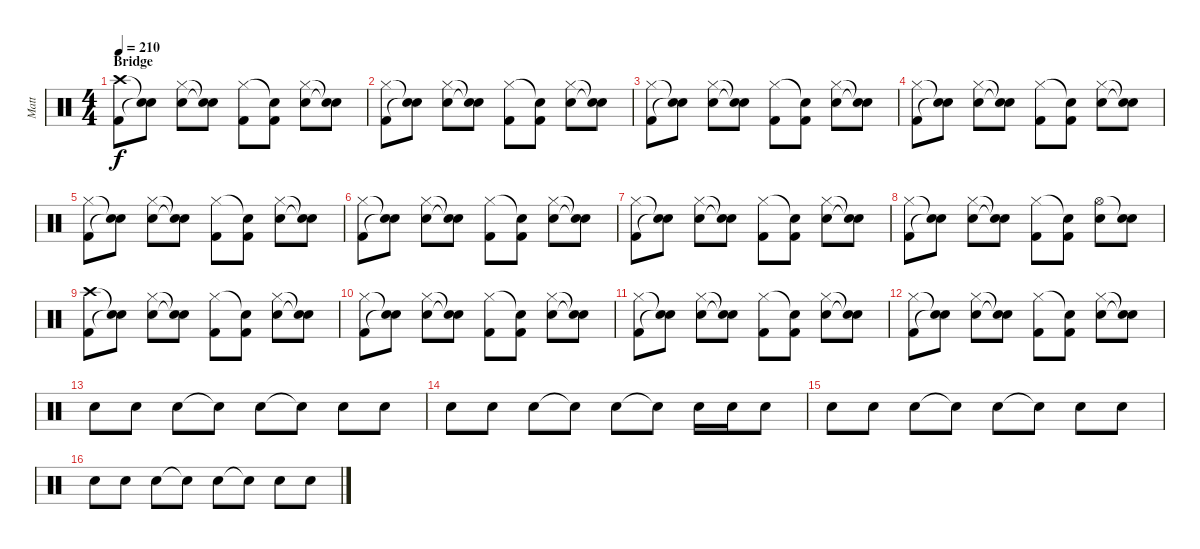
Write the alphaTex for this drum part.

\track ("Matt" "Matt") {instrument percussion}
\staff {score}
\articulation defaults
\ts (4 4)
\section ("" "Bridge")
\tempo 210
\clef neutral
\ks c
("Crash high (hit)" "Kick (hit) 2").8{dy f} ("Snare (hit)"{t} "Snare (hit)"{t}).8 ("Hi-Hat (closed)" "Snare (hit) 2").8 ("Snare (hit)"{t} "Snare (hit)"{t}).8 ("Hi-Hat (closed)" "Kick (hit) 2").8 ("Snare (hit)"{t} "Kick (hit) 2").8 ("Hi-Hat (closed)" "Snare (hit) 2").8 ("Snare (hit)"{t} "Snare (hit)"{t}).8 |
("Hi-Hat (closed)" "Kick (hit) 2").8 ("Snare (hit)"{t} "Snare (hit)"{t}).8 ("Hi-Hat (closed)" "Snare (hit) 2").8 ("Snare (hit)"{t} "Snare (hit)"{t}).8 ("Hi-Hat (closed)" "Kick (hit) 2").8 ("Snare (hit)"{t} "Kick (hit) 2").8 ("Hi-Hat (closed)" "Snare (hit) 2").8 ("Snare (hit)"{t} "Snare (hit)"{t}).8 |
("Hi-Hat (closed)" "Kick (hit) 2").8 ("Snare (hit)"{t} "Snare (hit)"{t}).8 ("Hi-Hat (closed)" "Snare (hit) 2").8 ("Snare (hit)"{t} "Snare (hit)"{t}).8 ("Hi-Hat (closed)" "Kick (hit) 2").8 ("Snare (hit)"{t} "Kick (hit) 2").8 ("Hi-Hat (closed)" "Snare (hit) 2").8 ("Snare (hit)"{t} "Snare (hit)"{t}).8 |
("Hi-Hat (closed)" "Kick (hit) 2").8 ("Snare (hit)"{t} "Snare (hit)"{t}).8 ("Hi-Hat (closed)" "Snare (hit) 2").8 ("Snare (hit)"{t} "Snare (hit)"{t}).8 ("Hi-Hat (closed)" "Kick (hit) 2").8 ("Snare (hit)"{t} "Kick (hit) 2").8 ("Hi-Hat (closed)" "Snare (hit) 2").8 ("Snare (hit)"{t} "Snare (hit)"{t}).8 |
("Hi-Hat (closed)" "Kick (hit) 2").8 ("Snare (hit)"{t} "Snare (hit)"{t}).8 ("Hi-Hat (closed)" "Snare (hit) 2").8 ("Snare (hit)"{t} "Snare (hit)"{t}).8 ("Hi-Hat (closed)" "Kick (hit) 2").8 ("Snare (hit)"{t} "Kick (hit) 2").8 ("Hi-Hat (closed)" "Snare (hit) 2").8 ("Snare (hit)"{t} "Snare (hit)"{t}).8 |
("Hi-Hat (closed)" "Kick (hit) 2").8 ("Snare (hit)"{t} "Snare (hit)"{t}).8 ("Hi-Hat (closed)" "Snare (hit) 2").8 ("Snare (hit)"{t} "Snare (hit)"{t}).8 ("Hi-Hat (closed)" "Kick (hit) 2").8 ("Snare (hit)"{t} "Kick (hit) 2").8 ("Hi-Hat (closed)" "Snare (hit) 2").8 ("Snare (hit)"{t} "Snare (hit)"{t}).8 |
("Hi-Hat (closed)" "Kick (hit) 2").8 ("Snare (hit)"{t} "Snare (hit)"{t}).8 ("Hi-Hat (closed)" "Snare (hit) 2").8 ("Snare (hit)"{t} "Snare (hit)"{t}).8 ("Hi-Hat (closed)" "Kick (hit) 2").8 ("Snare (hit)"{t} "Kick (hit) 2").8 ("Hi-Hat (closed)" "Snare (hit) 2").8 ("Snare (hit)"{t} "Snare (hit)"{t}).8 |
("Hi-Hat (closed)" "Kick (hit) 2").8 ("Snare (hit)"{t} "Snare (hit)"{t}).8 ("Hi-Hat (closed)" "Snare (hit) 2").8 ("Snare (hit)"{t} "Snare (hit)"{t}).8 ("Hi-Hat (closed)" "Kick (hit) 2").8 ("Snare (hit)"{t} "Kick (hit) 2").8 ("Hi-Hat (open)" "Snare (hit) 2").8 ("Snare (hit)"{t} "Snare (hit) 2").8 |
("Crash high (hit)" "Kick (hit) 2").8 ("Snare (hit)"{t} "Snare (hit)"{t}).8 ("Hi-Hat (closed)" "Snare (hit) 2").8 ("Snare (hit)"{t} "Snare (hit)"{t}).8 ("Hi-Hat (closed)" "Kick (hit) 2").8 ("Snare (hit)"{t} "Kick (hit) 2").8 ("Hi-Hat (closed)" "Snare (hit) 2").8 ("Snare (hit)"{t} "Snare (hit)"{t}).8 |
("Hi-Hat (closed)" "Kick (hit) 2").8 ("Snare (hit)"{t} "Snare (hit)"{t}).8 ("Hi-Hat (closed)" "Snare (hit) 2").8 ("Snare (hit)"{t} "Snare (hit)"{t}).8 ("Hi-Hat (closed)" "Kick (hit) 2").8 ("Snare (hit)"{t} "Kick (hit) 2").8 ("Hi-Hat (closed)" "Snare (hit) 2").8 ("Snare (hit)"{t} "Snare (hit)"{t}).8 |
("Hi-Hat (closed)" "Kick (hit) 2").8 ("Snare (hit)"{t} "Snare (hit)"{t}).8 ("Hi-Hat (closed)" "Snare (hit) 2").8 ("Snare (hit)"{t} "Snare (hit)"{t}).8 ("Hi-Hat (closed)" "Kick (hit) 2").8 ("Snare (hit)"{t} "Kick (hit) 2").8 ("Hi-Hat (closed)" "Snare (hit) 2").8 ("Snare (hit)"{t} "Snare (hit)"{t}).8 |
("Hi-Hat (closed)" "Kick (hit) 2").8 ("Snare (hit)"{t} "Snare (hit)"{t}).8 ("Hi-Hat (closed)" "Snare (hit) 2").8 ("Snare (hit)"{t} "Snare (hit)"{t}).8 ("Hi-Hat (closed)" "Kick (hit) 2").8 ("Snare (hit)"{t} "Kick (hit) 2").8 ("Hi-Hat (closed)" "Snare (hit) 2").8 ("Snare (hit)"{t} "Snare (hit)"{t}).8 |
"Snare (hit) 2".8 "Snare (hit) 2".8 "Snare (hit) 2".8 "Snare (hit)"{t}.8 "Snare (hit) 2".8 "Snare (hit)"{t}.8 "Snare (hit) 2".8 "Snare (hit) 2".8 |
"Snare (hit) 2".8 "Snare (hit) 2".8 "Snare (hit) 2".8 "Snare (hit)"{t}.8 "Snare (hit) 2".8 "Snare (hit)"{t}.8 "Snare (hit) 2".16 "Snare (hit) 2".16 "Snare (hit) 2".8 |
"Snare (hit) 2".8 "Snare (hit) 2".8 "Snare (hit) 2".8 "Snare (hit)"{t}.8 "Snare (hit) 2".8 "Snare (hit)"{t}.8 "Snare (hit) 2".8 "Snare (hit) 2".8 |
"Snare (hit) 2".8 "Snare (hit) 2".8 "Snare (hit) 2".8 "Snare (hit)"{t}.8 "Snare (hit) 2".8 "Snare (hit)"{t}.8 "Snare (hit) 2".8 "Snare (hit) 2".8
